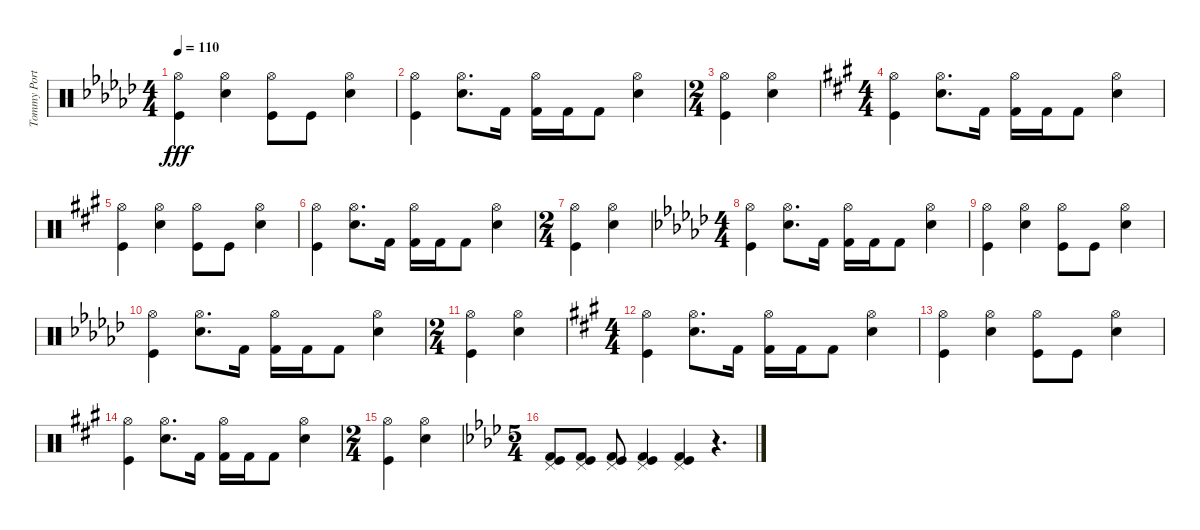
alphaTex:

\track ("Tommy Portimo (Percussion)" "Tommy Port") {instrument percussion}
\staff {score}
\articulation defaults
\ts (4 4)
\tempo 110
\clef neutral
\ks gb
("Kick (hit)" "Hi-Hat (open)").4{dy fff} ("Electric Snare (hit)" "Hi-Hat (open)").4 ("Kick (hit)" "Hi-Hat (open)").8 "Kick (hit)".8 ("Electric Snare (hit)" "Hi-Hat (open)").4 |
("Kick (hit)" "Hi-Hat (open)").4 ("Electric Snare (hit)" "Hi-Hat (open)").8{d} "Kick (hit) 2".16 ("Hi-Hat (open)" "Kick (hit) 2").16 "Kick (hit) 2".16 "Kick (hit) 2".8 ("Hi-Hat (open)" "Electric Snare (hit)").4 |
\ts (2 4)
("Kick (hit)" "Hi-Hat (open)").4 ("Electric Snare (hit)" "Hi-Hat (open)").4 |
\ts (4 4)
\ks a
("Kick (hit)" "Hi-Hat (open)").4 ("Electric Snare (hit)" "Hi-Hat (open)").8{d} "Kick (hit) 2".16 ("Hi-Hat (open)" "Kick (hit) 2").16 "Kick (hit) 2".16 "Kick (hit) 2".8 ("Hi-Hat (open)" "Electric Snare (hit)").4 |
("Kick (hit)" "Hi-Hat (open)").4 ("Electric Snare (hit)" "Hi-Hat (open)").4 ("Kick (hit)" "Hi-Hat (open)").8 "Kick (hit)".8 ("Electric Snare (hit)" "Hi-Hat (open)").4 |
("Kick (hit)" "Hi-Hat (open)").4 ("Electric Snare (hit)" "Hi-Hat (open)").8{d} "Kick (hit) 2".16 ("Hi-Hat (open)" "Kick (hit) 2").16 "Kick (hit) 2".16 "Kick (hit) 2".8 ("Hi-Hat (open)" "Electric Snare (hit)").4 |
\ts (2 4)
("Kick (hit)" "Hi-Hat (open)").4 ("Electric Snare (hit)" "Hi-Hat (open)").4 |
\ts (4 4)
\ks gb
("Kick (hit)" "Hi-Hat (open)").4 ("Electric Snare (hit)" "Hi-Hat (open)").8{d} "Kick (hit) 2".16 ("Hi-Hat (open)" "Kick (hit) 2").16 "Kick (hit) 2".16 "Kick (hit) 2".8 ("Hi-Hat (open)" "Electric Snare (hit)").4 |
("Kick (hit)" "Hi-Hat (open)").4 ("Electric Snare (hit)" "Hi-Hat (open)").4 ("Kick (hit)" "Hi-Hat (open)").8 "Kick (hit)".8 ("Electric Snare (hit)" "Hi-Hat (open)").4 |
("Kick (hit)" "Hi-Hat (open)").4 ("Electric Snare (hit)" "Hi-Hat (open)").8{d} "Kick (hit) 2".16 ("Hi-Hat (open)" "Kick (hit) 2").16 "Kick (hit) 2".16 "Kick (hit) 2".8 ("Hi-Hat (open)" "Electric Snare (hit)").4 |
\ts (2 4)
("Kick (hit)" "Hi-Hat (open)").4 ("Electric Snare (hit)" "Hi-Hat (open)").4 |
\ts (4 4)
\ks a
("Kick (hit)" "Hi-Hat (open)").4 ("Electric Snare (hit)" "Hi-Hat (open)").8{d} "Kick (hit) 2".16 ("Hi-Hat (open)" "Kick (hit) 2").16 "Kick (hit) 2".16 "Kick (hit) 2".8 ("Hi-Hat (open)" "Electric Snare (hit)").4 |
("Kick (hit)" "Hi-Hat (open)").4 ("Electric Snare (hit)" "Hi-Hat (open)").4 ("Kick (hit)" "Hi-Hat (open)").8 "Kick (hit)".8 ("Electric Snare (hit)" "Hi-Hat (open)").4 |
("Kick (hit)" "Hi-Hat (open)").4 ("Electric Snare (hit)" "Hi-Hat (open)").8{d} "Kick (hit) 2".16 ("Hi-Hat (open)" "Kick (hit) 2").16 "Kick (hit) 2".16 "Kick (hit) 2".8 ("Hi-Hat (open)" "Electric Snare (hit)").4 |
\ts (2 4)
("Kick (hit)" "Hi-Hat (open)").4 ("Electric Snare (hit)" "Hi-Hat (open)").4 |
\ts (5 4)
\ks ab
("Kick (hit) 2" "Pedal Hi-Hat (hit)" "Kick (hit)").8 ("Kick (hit) 2" "Pedal Hi-Hat (hit)" "Kick (hit)").8 ("Kick (hit) 2" "Pedal Hi-Hat (hit)" "Kick (hit)").8 ("Kick (hit) 2" "Pedal Hi-Hat (hit)" "Kick (hit)").4 ("Kick (hit) 2" "Pedal Hi-Hat (hit)" "Kick (hit)").4 r.4{d}
